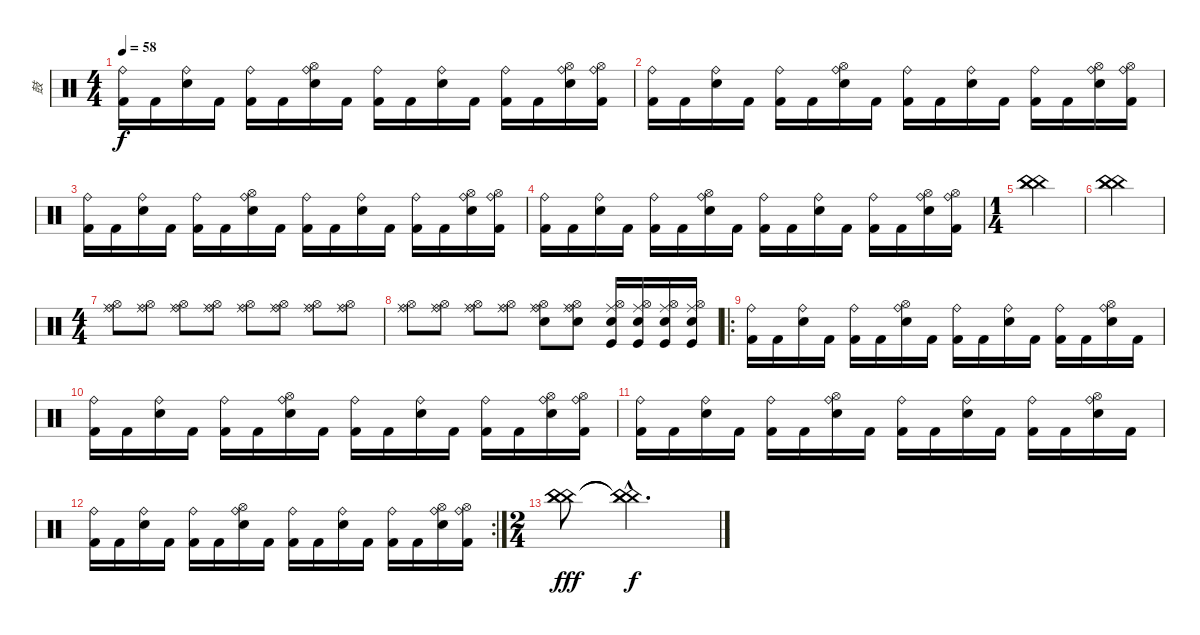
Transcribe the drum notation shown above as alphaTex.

\track ("鼓" "鼓") {instrument percussion}
\staff {score}
\articulation defaults
\ts (4 4)
\tempo 58
\clef neutral
\ks c
("Ride (bell)" "Kick (hit) 2").16{dy f} "Kick (hit) 2".16 ("Ride (bell)" "Snare (hit) 2").16 "Kick (hit) 2".16 ("Ride (bell)" "Kick (hit) 2").16 "Kick (hit) 2".16 ("Hi-Hat (open)" "Ride (bell)" "Snare (hit) 2").16 "Kick (hit) 2".16 ("Ride (bell)" "Kick (hit) 2").16 "Kick (hit) 2".16 ("Ride (bell)" "Snare (hit) 2").16 "Kick (hit) 2".16 ("Ride (bell)" "Kick (hit) 2").16 "Kick (hit) 2".16 ("Hi-Hat (open)" "Ride (bell)" "Snare (hit) 2").16 ("Hi-Hat (open)" "Ride (bell)" "Kick (hit) 2").16 |
("Ride (bell)" "Kick (hit) 2").16 "Kick (hit) 2".16 ("Ride (bell)" "Snare (hit) 2").16 "Kick (hit) 2".16 ("Ride (bell)" "Kick (hit) 2").16 "Kick (hit) 2".16 ("Hi-Hat (open)" "Ride (bell)" "Snare (hit) 2").16 "Kick (hit) 2".16 ("Ride (bell)" "Kick (hit) 2").16 "Kick (hit) 2".16 ("Ride (bell)" "Snare (hit) 2").16 "Kick (hit) 2".16 ("Ride (bell)" "Kick (hit) 2").16 "Kick (hit) 2".16 ("Hi-Hat (open)" "Ride (bell)" "Snare (hit) 2").16 ("Hi-Hat (open)" "Ride (bell)" "Kick (hit) 2").16 |
("Ride (bell)" "Kick (hit) 2").16 "Kick (hit) 2".16 ("Ride (bell)" "Snare (hit) 2").16 "Kick (hit) 2".16 ("Ride (bell)" "Kick (hit) 2").16 "Kick (hit) 2".16 ("Hi-Hat (open)" "Ride (bell)" "Snare (hit) 2").16 "Kick (hit) 2".16 ("Ride (bell)" "Kick (hit) 2").16 "Kick (hit) 2".16 ("Ride (bell)" "Snare (hit) 2").16 "Kick (hit) 2".16 ("Ride (bell)" "Kick (hit) 2").16 "Kick (hit) 2".16 ("Hi-Hat (open)" "Ride (bell)" "Snare (hit) 2").16 ("Hi-Hat (open)" "Ride (bell)" "Kick (hit) 2").16 |
("Ride (bell)" "Kick (hit) 2").16 "Kick (hit) 2".16 ("Ride (bell)" "Snare (hit) 2").16 "Kick (hit) 2".16 ("Ride (bell)" "Kick (hit) 2").16 "Kick (hit) 2".16 ("Hi-Hat (open)" "Ride (bell)" "Snare (hit) 2").16 "Kick (hit) 2".16 ("Ride (bell)" "Kick (hit) 2").16 "Kick (hit) 2".16 ("Ride (bell)" "Snare (hit) 2").16 "Kick (hit) 2".16 ("Ride (bell)" "Kick (hit) 2").16 "Kick (hit) 2".16 ("Hi-Hat (open)" "Ride (bell)" "Snare (hit) 2").16 ("Hi-Hat (open)" "Ride (bell)" "Kick (hit) 2").16 |
\ts (1 4)
("China (hit)" "China (hit)" "China (hit)").4 |
("China (hit)" "China (hit)" "China (hit)").4 |
\ts (4 4)
("Hi-Hat (open)" "Ride (bell)" "Ride (middle)").8 ("Hi-Hat (open)" "Ride (bell)" "Ride (middle)").8 ("Hi-Hat (open)" "Ride (bell)" "Ride (middle)").8 ("Hi-Hat (open)" "Ride (bell)" "Ride (middle)").8 ("Hi-Hat (open)" "Ride (bell)" "Ride (middle)").8 ("Hi-Hat (open)" "Ride (bell)" "Ride (middle)").8 ("Hi-Hat (open)" "Ride (bell)" "Ride (middle)").8 ("Hi-Hat (open)" "Ride (bell)" "Ride (middle)").8 |
("Hi-Hat (open)" "Ride (bell)" "Ride (middle)").8 ("Hi-Hat (open)" "Ride (bell)" "Ride (middle)").8 ("Hi-Hat (open)" "Ride (bell)" "Ride (middle)").8 ("Hi-Hat (open)" "Ride (bell)" "Ride (middle)").8 ("Hi-Hat (open)" "Ride (bell)" "Snare (hit) 2" "Ride (middle)").8 ("Hi-Hat (open)" "Ride (bell)" "Snare (hit) 2" "Ride (middle)").8 ("Hi-Hat (open)" "Kick (hit)" "Snare (hit) 2" "Ride (middle)").16 ("Hi-Hat (open)" "Kick (hit)" "Snare (hit) 2" "Ride (middle)").16 ("Hi-Hat (open)" "Kick (hit)" "Snare (hit) 2" "Ride (middle)").16 ("Hi-Hat (open)" "Kick (hit)" "Snare (hit) 2" "Ride (middle)").16 |
\ro
("Ride (bell)" "Kick (hit) 2").16 "Kick (hit) 2".16 ("Ride (bell)" "Snare (hit) 2").16 "Kick (hit) 2".16 ("Ride (bell)" "Kick (hit) 2").16 "Kick (hit) 2".16 ("Hi-Hat (open)" "Ride (bell)" "Snare (hit) 2").16 "Kick (hit) 2".16 ("Ride (bell)" "Kick (hit) 2").16 "Kick (hit) 2".16 ("Ride (bell)" "Snare (hit) 2").16 "Kick (hit) 2".16 ("Ride (bell)" "Kick (hit) 2").16 "Kick (hit) 2".16 ("Hi-Hat (open)" "Ride (bell)" "Snare (hit) 2").16 "Kick (hit) 2".16 |
("Ride (bell)" "Kick (hit) 2").16 "Kick (hit) 2".16 ("Ride (bell)" "Snare (hit) 2").16 "Kick (hit) 2".16 ("Ride (bell)" "Kick (hit) 2").16 "Kick (hit) 2".16 ("Hi-Hat (open)" "Ride (bell)" "Snare (hit) 2").16 "Kick (hit) 2".16 ("Ride (bell)" "Kick (hit) 2").16 "Kick (hit) 2".16 ("Ride (bell)" "Snare (hit) 2").16 "Kick (hit) 2".16 ("Ride (bell)" "Kick (hit) 2").16 "Kick (hit) 2".16 ("Hi-Hat (open)" "Ride (bell)" "Snare (hit) 2").16 ("Hi-Hat (open)" "Ride (bell)" "Kick (hit) 2").16 |
("Ride (bell)" "Kick (hit) 2").16 "Kick (hit) 2".16 ("Ride (bell)" "Snare (hit) 2").16 "Kick (hit) 2".16 ("Ride (bell)" "Kick (hit) 2").16 "Kick (hit) 2".16 ("Hi-Hat (open)" "Ride (bell)" "Snare (hit) 2").16 "Kick (hit) 2".16 ("Ride (bell)" "Kick (hit) 2").16 "Kick (hit) 2".16 ("Ride (bell)" "Snare (hit) 2").16 "Kick (hit) 2".16 ("Ride (bell)" "Kick (hit) 2").16 "Kick (hit) 2".16 ("Hi-Hat (open)" "Ride (bell)" "Snare (hit) 2").16 "Kick (hit) 2".16 |
\rc 2
("Ride (bell)" "Kick (hit) 2").16 "Kick (hit) 2".16 ("Ride (bell)" "Snare (hit) 2").16 "Kick (hit) 2".16 ("Ride (bell)" "Kick (hit) 2").16 "Kick (hit) 2".16 ("Hi-Hat (open)" "Ride (bell)" "Snare (hit) 2").16 "Kick (hit) 2".16 ("Ride (bell)" "Kick (hit) 2").16 "Kick (hit) 2".16 ("Ride (bell)" "Snare (hit) 2").16 "Kick (hit) 2".16 ("Ride (bell)" "Kick (hit) 2").16 "Kick (hit) 2".16 ("Hi-Hat (open)" "Ride (bell)" "Snare (hit) 2").16 ("Hi-Hat (open)" "Ride (bell)" "Kick (hit) 2").16 |
\ts (2 4)
("China (hit)" "China (hit)" "China (hit)").8{dy fff} ("China (hit)"{hac t} "China (hit)"{hac t} "China (hit)"{hac t}).4{d dy f}
